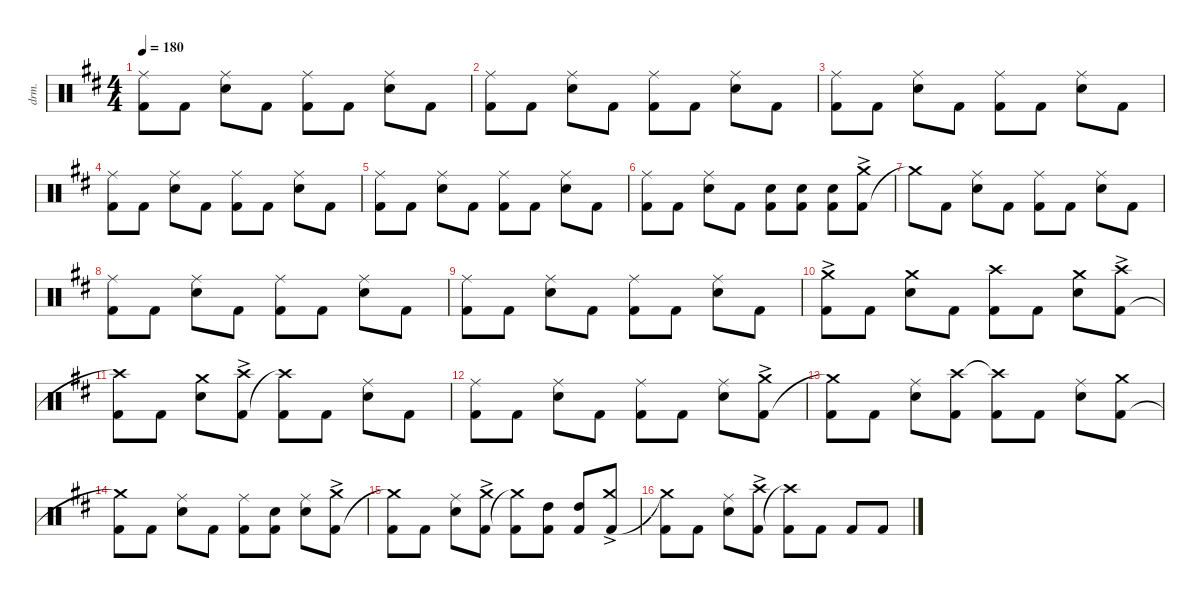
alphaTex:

\defaultSystemsLayout 4
\hideDynamics
\bracketExtendMode nobrackets
\otherSystemsTrackNameOrientation horizontal
\track ("Drum" "drm.") {instrument percussion}
\staff {score}
\articulation defaults
\ts (4 4)
\tempo 180
\clef neutral
\ks d
("Ride (middle)"{acc forcenatural} "Kick (hit) 2"{acc forcenatural}).8{dy f beam Down} "Kick (hit) 2"{acc forcenatural}.8{beam Down} ("Snare (hit) 2"{acc forcenatural} "Ride (middle)"{acc forcenatural}).8{beam Down} "Kick (hit) 2"{acc forcenatural}.8{beam Down} ("Kick (hit) 2"{acc forcenatural} "Ride (middle)"{acc forcenatural}).8{beam Down} "Kick (hit) 2"{acc forcenatural}.8{beam Down} ("Snare (hit) 2"{acc forcenatural} "Ride (middle)"{acc forcenatural}).8{beam Down} "Kick (hit) 2"{acc forcenatural}.8{beam Down} |
("Ride (middle)"{acc forcenatural} "Kick (hit) 2"{acc forcenatural}).8{beam Down} "Kick (hit) 2"{acc forcenatural}.8{beam Down} ("Snare (hit) 2"{acc forcenatural} "Ride (middle)"{acc forcenatural}).8{beam Down} "Kick (hit) 2"{acc forcenatural}.8{beam Down} ("Kick (hit) 2"{acc forcenatural} "Ride (middle)"{acc forcenatural}).8{beam Down} "Kick (hit) 2"{acc forcenatural}.8{beam Down} ("Snare (hit) 2"{acc forcenatural} "Ride (middle)"{acc forcenatural}).8{beam Down} "Kick (hit) 2"{acc forcenatural}.8{beam Down} |
("Ride (middle)"{acc forcenatural} "Kick (hit) 2"{acc forcenatural}).8{beam Down} "Kick (hit) 2"{acc forcenatural}.8{beam Down} ("Snare (hit) 2"{acc forcenatural} "Ride (middle)"{acc forcenatural}).8{beam Down} "Kick (hit) 2"{acc forcenatural}.8{beam Down} ("Kick (hit) 2"{acc forcenatural} "Ride (middle)"{acc forcenatural}).8{beam Down} "Kick (hit) 2"{acc forcenatural}.8{beam Down} ("Snare (hit) 2"{acc forcenatural} "Ride (middle)"{acc forcenatural}).8{beam Down} "Kick (hit) 2"{acc forcenatural}.8{beam Down} |
("Ride (middle)"{acc forcenatural} "Kick (hit) 2"{acc forcenatural}).8{beam Down} "Kick (hit) 2"{acc forcenatural}.8{beam Down} ("Snare (hit) 2"{acc forcenatural} "Ride (middle)"{acc forcenatural}).8{beam Down} "Kick (hit) 2"{acc forcenatural}.8{beam Down} ("Kick (hit) 2"{acc forcenatural} "Ride (middle)"{acc forcenatural}).8{beam Down} "Kick (hit) 2"{acc forcenatural}.8{beam Down} ("Snare (hit) 2"{acc forcenatural} "Ride (middle)"{acc forcenatural}).8{beam Down} "Kick (hit) 2"{acc forcenatural}.8{beam Down} |
("Ride (middle)"{acc forcenatural} "Kick (hit) 2"{acc forcenatural}).8{beam Down} "Kick (hit) 2"{acc forcenatural}.8{beam Down} ("Snare (hit) 2"{acc forcenatural} "Ride (middle)"{acc forcenatural}).8{beam Down} "Kick (hit) 2"{acc forcenatural}.8{beam Down} ("Kick (hit) 2"{acc forcenatural} "Ride (middle)"{acc forcenatural}).8{beam Down} "Kick (hit) 2"{acc forcenatural}.8{beam Down} ("Snare (hit) 2"{acc forcenatural} "Ride (middle)"{acc forcenatural}).8{beam Down} "Kick (hit) 2"{acc forcenatural}.8{beam Down} |
("Ride (middle)"{acc forcenatural} "Kick (hit) 2"{acc forcenatural}).8{beam Down} "Kick (hit) 2"{acc forcenatural}.8{beam Down} ("Snare (hit) 2"{acc forcenatural} "Ride (middle)"{acc forcenatural}).8{beam Down} "Kick (hit) 2"{acc forcenatural}.8{beam Down} ("Kick (hit) 2"{acc forcenatural} "Snare (hit) 2"{acc forcenatural}).8{beam Down} ("Kick (hit) 2"{acc forcenatural} "Snare (hit) 2"{acc forcenatural}).8{beam Down} ("Snare (hit) 2"{acc forcenatural} "Kick (hit) 2"{acc forcenatural}).8{beam Down} ("Kick (hit) 2"{ac acc forcenatural} "Crash medium (hit)"{ac acc forcenatural}).8{beam Down} |
"Crash medium (hit)"{t acc forcenatural}.8{beam Down} "Kick (hit) 2"{acc forcenatural}.8{beam Down} ("Snare (hit) 2"{acc forcenatural} "Ride (middle)"{acc forcenatural}).8{beam Down} "Kick (hit) 2"{acc forcenatural}.8{beam Down} ("Kick (hit) 2"{acc forcenatural} "Ride (middle)"{acc forcenatural}).8{beam Down} "Kick (hit) 2"{acc forcenatural}.8{beam Down} ("Snare (hit) 2"{acc forcenatural} "Ride (middle)"{acc forcenatural}).8{beam Down} "Kick (hit) 2"{acc forcenatural}.8{beam Down} |
("Ride (middle)"{acc forcenatural} "Kick (hit) 2"{acc forcenatural}).8{beam Down} "Kick (hit) 2"{acc forcenatural}.8{beam Down} ("Snare (hit) 2"{acc forcenatural} "Ride (middle)"{acc forcenatural}).8{beam Down} "Kick (hit) 2"{acc forcenatural}.8{beam Down} ("Kick (hit) 2"{acc forcenatural} "Ride (middle)"{acc forcenatural}).8{beam Down} "Kick (hit) 2"{acc forcenatural}.8{beam Down} ("Snare (hit) 2"{acc forcenatural} "Ride (middle)"{acc forcenatural}).8{beam Down} "Kick (hit) 2"{acc forcenatural}.8{beam Down} |
("Ride (middle)"{acc forcenatural} "Kick (hit) 2"{acc forcenatural}).8{beam Down} "Kick (hit) 2"{acc forcenatural}.8{beam Down} ("Snare (hit) 2"{acc forcenatural} "Ride (middle)"{acc forcenatural}).8{beam Down} "Kick (hit) 2"{acc forcenatural}.8{beam Down} ("Kick (hit) 2"{acc forcenatural} "Ride (middle)"{acc forcenatural}).8{beam Down} "Kick (hit) 2"{acc forcenatural}.8{beam Down} ("Snare (hit) 2"{acc forcenatural} "Ride (middle)"{acc forcenatural}).8{beam Down} "Kick (hit) 2"{acc forcenatural}.8{beam Down} |
("Kick (hit) 2"{ac acc forcenatural} "Crash medium (hit)"{ac acc forcenatural}).8{beam Down} "Kick (hit) 2"{acc forcenatural}.8{beam Down} ("Snare (hit) 2"{acc forcenatural} "Crash medium (hit)"{acc forcenatural}).8{beam Down} "Kick (hit) 2"{acc forcenatural}.8{beam Down} ("Kick (hit) 2"{acc forcenatural} "Crash high (hit)"{acc forcenatural}).8{beam Down} "Kick (hit) 2"{acc forcenatural}.8{beam Down} ("Snare (hit) 2"{acc forcenatural} "Crash medium (hit)"{acc forcenatural}).8{beam Down} ("Kick (hit) 2"{ac acc forcenatural} "Crash high (hit)"{ac acc forcenatural}).8{beam Down} |
("Crash high (hit)"{t acc forcenatural} "Kick (hit) 2"{acc forcenatural}).8{beam Down} "Kick (hit) 2"{acc forcenatural}.8{beam Down} ("Snare (hit) 2"{acc forcenatural} "Crash medium (hit)"{acc forcenatural}).8{beam Down} ("Kick (hit) 2"{ac acc forcenatural} "Crash high (hit)"{ac acc forcenatural}).8{beam Down} ("Crash high (hit)"{t acc forcenatural} "Kick (hit) 2"{acc forcenatural}).8{beam Down} "Kick (hit) 2"{acc forcenatural}.8{beam Down} ("Snare (hit) 2"{acc forcenatural} "Ride (middle)"{acc forcenatural}).8{beam Down} "Kick (hit) 2"{acc forcenatural}.8{beam Down} |
("Ride (middle)"{acc forcenatural} "Kick (hit) 2"{acc forcenatural}).8{beam Down} "Kick (hit) 2"{acc forcenatural}.8{beam Down} ("Snare (hit) 2"{acc forcenatural} "Ride (middle)"{acc forcenatural}).8{beam Down} "Kick (hit) 2"{acc forcenatural}.8{beam Down} ("Kick (hit) 2"{acc forcenatural} "Ride (middle)"{acc forcenatural}).8{beam Down} "Kick (hit) 2"{acc forcenatural}.8{beam Down} ("Snare (hit) 2"{acc forcenatural} "Ride (middle)"{acc forcenatural}).8{beam Down} ("Kick (hit) 2"{ac acc forcenatural} "Crash medium (hit)"{ac acc forcenatural}).8{beam Down} |
("Crash medium (hit)"{t acc forcenatural} "Kick (hit) 2"{acc forcenatural}).8{beam Down} "Kick (hit) 2"{acc forcenatural}.8{beam Down} ("Snare (hit) 2"{acc forcenatural} "Ride (middle)"{acc forcenatural}).8{beam Down} ("Kick (hit) 2"{acc forcenatural} "Crash high (hit)"{acc forcenatural}).8{beam Down} ("Kick (hit) 2"{acc forcenatural} "Crash high (hit)"{t acc forcenatural}).8{beam Down} "Kick (hit) 2"{acc forcenatural}.8{beam Down} ("Snare (hit) 2"{acc forcenatural} "Ride (middle)"{acc forcenatural}).8{beam Down} ("Kick (hit) 2"{acc forcenatural} "Crash medium (hit)"{acc forcenatural}).8{beam Down} |
("Crash medium (hit)"{t acc forcenatural} "Kick (hit) 2"{acc forcenatural}).8{beam Down} "Kick (hit) 2"{acc forcenatural}.8{beam Down} ("Snare (hit) 2"{acc forcenatural} "Ride (middle)"{acc forcenatural}).8{beam Down} "Kick (hit) 2"{acc forcenatural}.8{beam Down} ("Kick (hit) 2"{acc forcenatural} "Ride (middle)"{acc forcenatural}).8{beam Down} ("Kick (hit) 2"{acc forcenatural} "Snare (hit) 2"{acc forcenatural}).8{beam Down} ("Snare (hit) 2"{acc forcenatural} "Ride (middle)"{acc forcenatural}).8{beam Down} ("Kick (hit) 2"{ac acc forcenatural} "Crash medium (hit)"{ac acc forcenatural}).8{beam Down} |
("Crash medium (hit)"{t acc forcenatural} "Kick (hit) 2"{acc forcenatural}).8{beam Down} "Kick (hit) 2"{acc forcenatural}.8{beam Down} ("Snare (hit) 2"{acc forcenatural} "Ride (middle)"{acc forcenatural}).8{beam Down} ("Kick (hit) 2"{ac acc forcenatural} "Crash medium (hit)"{ac acc forcenatural}).8{beam Down} ("Crash medium (hit)"{t acc forcenatural} "Kick (hit) 2"{acc forcenatural}).8{beam Down} ("High Tom (hit)"{acc forcenatural} "Kick (hit) 2"{acc forcenatural}).8{beam Down} ("High Tom (hit)"{acc forcenatural} "Kick (hit) 2"{acc forcenatural}).8{beam Up} ("Kick (hit) 2"{ac acc forcenatural} "Crash medium (hit)"{ac acc forcenatural}).8{beam Up} |
("Crash medium (hit)"{t acc forcenatural} "Kick (hit) 2"{acc forcenatural}).8{beam Down} "Kick (hit) 2"{acc forcenatural}.8{beam Down} ("Snare (hit) 2"{acc forcenatural} "Ride (middle)"{acc forcenatural}).8{beam Down} ("Kick (hit) 2"{ac acc forcenatural} "Crash high (hit)"{ac acc forcenatural}).8{beam Down} ("Crash high (hit)"{t acc forcenatural} "Kick (hit) 2"{acc forcenatural}).8{beam Down} "Kick (hit) 2"{acc forcenatural}.8{beam Down} "Kick (hit) 2"{acc forcenatural}.8{beam Up} "Kick (hit) 2"{acc forcenatural}.8{beam Up}
